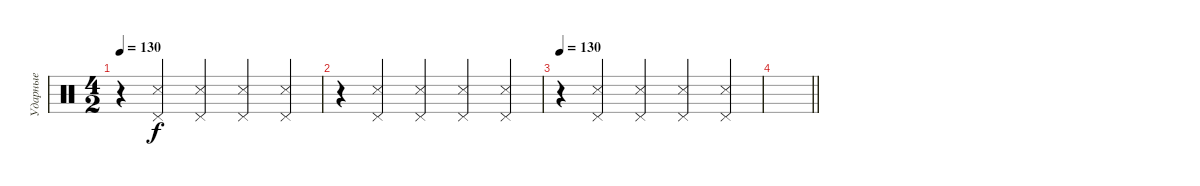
\track ("Ударные" "Ударные") {instrument percussion}
\staff {score}
\articulation defaults
\ts (4 2)
\tempo 130
\clef neutral
\ks c
r.4{dy f} ("Pedal Hi-Hat (hit)" "Snare (side stick) 3").2 ("Pedal Hi-Hat (hit)" "Snare (side stick) 3").2 ("Pedal Hi-Hat (hit)" "Snare (side stick) 3").2 ("Pedal Hi-Hat (hit)" "Snare (side stick) 3").4 |
r.4 ("Pedal Hi-Hat (hit)" "Snare (side stick) 3").2 ("Pedal Hi-Hat (hit)" "Snare (side stick) 3").2 ("Pedal Hi-Hat (hit)" "Snare (side stick) 3").2 ("Pedal Hi-Hat (hit)" "Snare (side stick) 3").4 |
\tempo 130
r.4 ("Pedal Hi-Hat (hit)" "Snare (side stick) 3").2 ("Pedal Hi-Hat (hit)" "Snare (side stick) 3").2 ("Pedal Hi-Hat (hit)" "Snare (side stick) 3").2 ("Pedal Hi-Hat (hit)" "Snare (side stick) 3").4 |
\barLineRight lightlight
